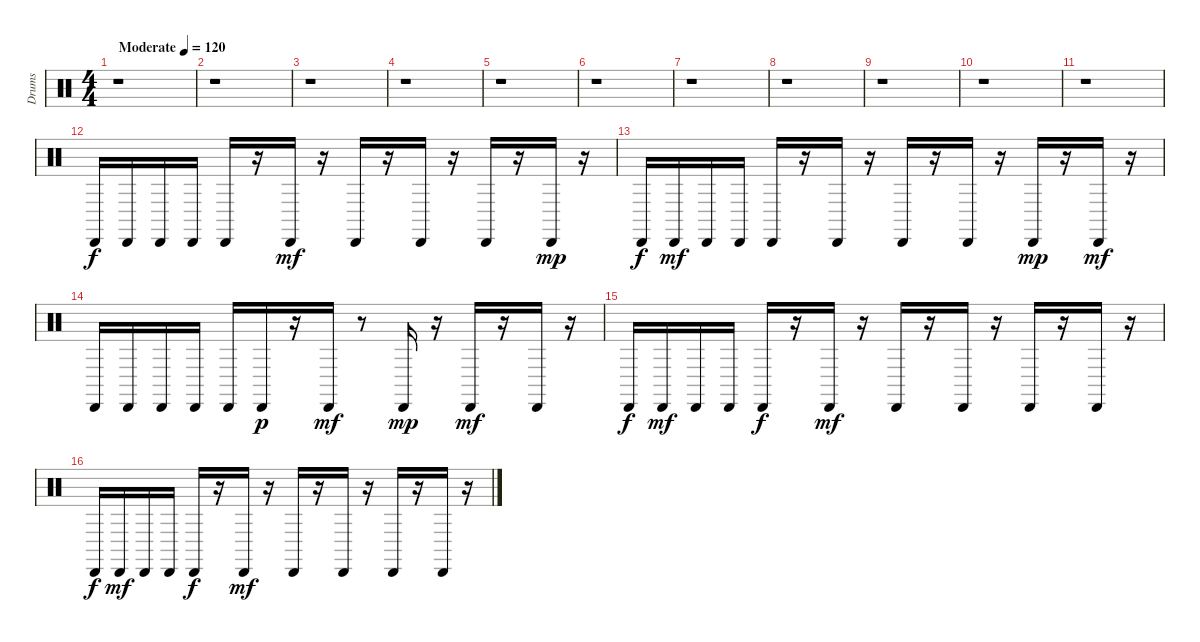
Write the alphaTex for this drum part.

\track ("Drums" "Drums") {instrument percussion}
\staff {score}
\articulation defaults
\ts (4 4)
\tempo (120 "Moderate")
\clef neutral
\ks c
r.1{dy f} |
r.1 |
r.1 |
r.1 |
r.1 |
r.1 |
r.1 |
r.1 |
r.1 |
r.1 |
r.1 |
"Cabasa (hit)".16 "Cabasa (hit)".16 "Cabasa (hit)".16 "Cabasa (hit)".16 "Cabasa (hit)".16 r.16 "Cabasa (hit)".16{dy mf} r.16 "Cabasa (hit)".16 r.16 "Cabasa (hit)".16 r.16 "Cabasa (hit)".16 r.16 "Cabasa (hit)".16{dy mp} r.16 |
"Cabasa (hit)".16{dy f} "Cabasa (hit)".16{dy mf} "Cabasa (hit)".16 "Cabasa (hit)".16 "Cabasa (hit)".16 r.16 "Cabasa (hit)".16 r.16 "Cabasa (hit)".16 r.16 "Cabasa (hit)".16 r.16 "Cabasa (hit)".16{dy mp} r.16 "Cabasa (hit)".16{dy mf} r.16 |
"Cabasa (hit)".16 "Cabasa (hit)".16 "Cabasa (hit)".16 "Cabasa (hit)".16 "Cabasa (hit)".16 "Cabasa (hit)".16{dy p} r.16 "Cabasa (hit)".16{dy mf} r.8 "Cabasa (hit)".16{dy mp} r.16 "Cabasa (hit)".16{dy mf} r.16 "Cabasa (hit)".16 r.16 |
"Cabasa (hit)".16{dy f} "Cabasa (hit)".16{dy mf} "Cabasa (hit)".16 "Cabasa (hit)".16 "Cabasa (hit)".16{dy f} r.16 "Cabasa (hit)".16{dy mf} r.16 "Cabasa (hit)".16 r.16 "Cabasa (hit)".16 r.16 "Cabasa (hit)".16 r.16 "Cabasa (hit)".16 r.16 |
"Cabasa (hit)".16{dy f} "Cabasa (hit)".16{dy mf} "Cabasa (hit)".16 "Cabasa (hit)".16 "Cabasa (hit)".16{dy f} r.16 "Cabasa (hit)".16{dy mf} r.16 "Cabasa (hit)".16 r.16 "Cabasa (hit)".16 r.16 "Cabasa (hit)".16 r.16 "Cabasa (hit)".16 r.16
